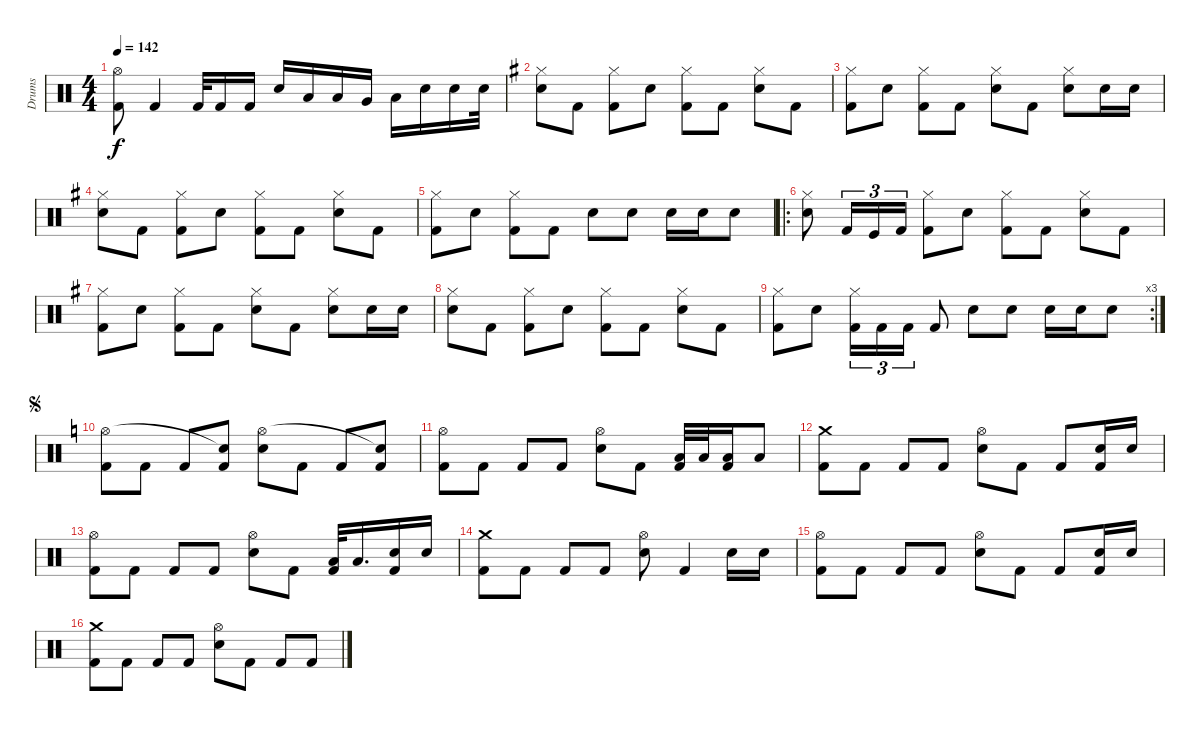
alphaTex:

\track ("Drums" "Drums") {instrument percussion}
\staff {score}
\articulation defaults
\ts (4 4)
\tempo 142
\clef neutral
\ks c
("Kick (hit) 2" "Hi-Hat (open)").8{dy f} "Kick (hit) 2".4 "Kick (hit) 2".32 "Kick (hit) 2".16 "Kick (hit) 2".16 "Electric Snare (hit)".16 "Low Tom (hit)".16 "Low Tom (hit)".16 "Very Low Tom (hit)".16 "Low Floor Tom (hit)".16 "Electric Snare (hit)".16 "Electric Snare (hit)".16 "Electric Snare (hit)".32 |
\ks g
("Electric Snare (hit)" "Hi-Hat (closed)").8 "Kick (hit) 2".8 ("Kick (hit) 2" "Hi-Hat (closed)").8 "Electric Snare (hit)".8 ("Kick (hit) 2" "Hi-Hat (closed)").8 "Kick (hit) 2".8 ("Electric Snare (hit)" "Hi-Hat (closed)").8 "Kick (hit) 2".8 |
("Kick (hit) 2" "Hi-Hat (closed)").8 "Electric Snare (hit)".8 ("Kick (hit) 2" "Hi-Hat (closed)").8 "Kick (hit) 2".8 ("Electric Snare (hit)" "Hi-Hat (closed)").8 "Kick (hit) 2".8 ("Electric Snare (hit)" "Hi-Hat (closed)").8 "Electric Snare (hit)".16 "Electric Snare (hit)".16 |
("Electric Snare (hit)" "Hi-Hat (closed)").8 "Kick (hit) 2".8 ("Kick (hit) 2" "Hi-Hat (closed)").8 "Electric Snare (hit)".8 ("Kick (hit) 2" "Hi-Hat (closed)").8 "Kick (hit) 2".8 ("Electric Snare (hit)" "Hi-Hat (closed)").8 "Kick (hit) 2".8 |
("Kick (hit) 2" "Hi-Hat (closed)").8 "Electric Snare (hit)".8 ("Kick (hit) 2" "Hi-Hat (closed)").8 "Kick (hit) 2".8 "Electric Snare (hit)".8 "Electric Snare (hit)".8 "Electric Snare (hit)".16 "Electric Snare (hit)".16 "Electric Snare (hit)".8 |
\ro
("Electric Snare (hit)" "Hi-Hat (closed)").8 "Kick (hit) 2".16{tu (3 2)} "Kick (hit)".16{tu (3 2)} "Kick (hit) 2".16{tu (3 2)} ("Kick (hit) 2" "Hi-Hat (closed)").8 "Electric Snare (hit)".8 ("Kick (hit) 2" "Hi-Hat (closed)").8 "Kick (hit) 2".8 ("Electric Snare (hit)" "Hi-Hat (closed)").8 "Kick (hit) 2".8 |
("Kick (hit) 2" "Hi-Hat (closed)").8 "Electric Snare (hit)".8 ("Kick (hit) 2" "Hi-Hat (closed)").8 "Kick (hit) 2".8 ("Electric Snare (hit)" "Hi-Hat (closed)").8 "Kick (hit) 2".8 ("Electric Snare (hit)" "Hi-Hat (closed)").8 "Electric Snare (hit)".16 "Electric Snare (hit)".16 |
("Electric Snare (hit)" "Hi-Hat (closed)").8 "Kick (hit) 2".8 ("Kick (hit) 2" "Hi-Hat (closed)").8 "Electric Snare (hit)".8 ("Kick (hit) 2" "Hi-Hat (closed)").8 "Kick (hit) 2".8 ("Electric Snare (hit)" "Hi-Hat (closed)").8 "Kick (hit) 2".8 |
\rc 3
("Kick (hit) 2" "Hi-Hat (closed)").8 "Electric Snare (hit)".8 ("Kick (hit) 2" "Hi-Hat (closed)").16{tu (3 2)} "Kick (hit) 2".16{tu (3 2)} "Kick (hit) 2".16{tu (3 2)} "Kick (hit) 2".8 "Electric Snare (hit)".8 "Electric Snare (hit)".8 "Electric Snare (hit)".16 "Electric Snare (hit)".16 "Electric Snare (hit)".8 |
\jump segno
\ks c
("Kick (hit) 2" "Hi-Hat (open)").8 "Kick (hit) 2".8 "Kick (hit) 2".8 ("Kick (hit) 2" "Snare (hit)"{t}).8 ("Electric Snare (hit)" "Hi-Hat (open)").8 "Kick (hit) 2".8 "Kick (hit) 2".8 ("Kick (hit) 2" "Snare (hit)"{t}).8 |
("Kick (hit) 2" "Hi-Hat (open)").8 "Kick (hit) 2".8 "Kick (hit) 2".8 "Kick (hit) 2".8 ("Electric Snare (hit)" "Hi-Hat (open)").8 "Kick (hit) 2".8 ("Low Tom (hit)" "Kick (hit) 2").32 "Low Tom (hit)".32 ("Low Tom (hit)" "Kick (hit) 2").16 "Low Tom (hit)".8 |
("Kick (hit) 2" "Crash medium (hit)").8 "Kick (hit) 2".8 "Kick (hit) 2".8 "Kick (hit) 2".8 ("Electric Snare (hit)" "Hi-Hat (open)").8 "Kick (hit) 2".8 "Kick (hit) 2".8 ("Electric Snare (hit)" "Kick (hit) 2").16 "Electric Snare (hit)".16 |
("Kick (hit) 2" "Hi-Hat (open)").8 "Kick (hit) 2".8 "Kick (hit) 2".8 "Kick (hit) 2".8 ("Electric Snare (hit)" "Hi-Hat (open)").8 "Kick (hit) 2".8 ("Low Tom (hit)" "Kick (hit) 2").32 "Low Tom (hit)".16{d} ("Electric Snare (hit)" "Kick (hit) 2").16 "Electric Snare (hit)".16 |
("Kick (hit) 2" "Crash medium (hit)").8 "Kick (hit) 2".8 "Kick (hit) 2".8 "Kick (hit) 2".8 ("Electric Snare (hit)" "Hi-Hat (open)").8 "Kick (hit) 2".4 "Electric Snare (hit)".16 "Electric Snare (hit)".16 |
("Kick (hit) 2" "Hi-Hat (open)").8 "Kick (hit) 2".8 "Kick (hit) 2".8 "Kick (hit) 2".8 ("Electric Snare (hit)" "Hi-Hat (open)").8 "Kick (hit) 2".8 "Kick (hit) 2".8 ("Electric Snare (hit)" "Kick (hit) 2").16 "Electric Snare (hit)".16 |
("Kick (hit) 2" "Crash medium (hit)").8 "Kick (hit) 2".8 "Kick (hit) 2".8 "Kick (hit) 2".8 ("Electric Snare (hit)" "Hi-Hat (open)").8 "Kick (hit) 2".8 "Kick (hit) 2".8 "Kick (hit) 2".8
